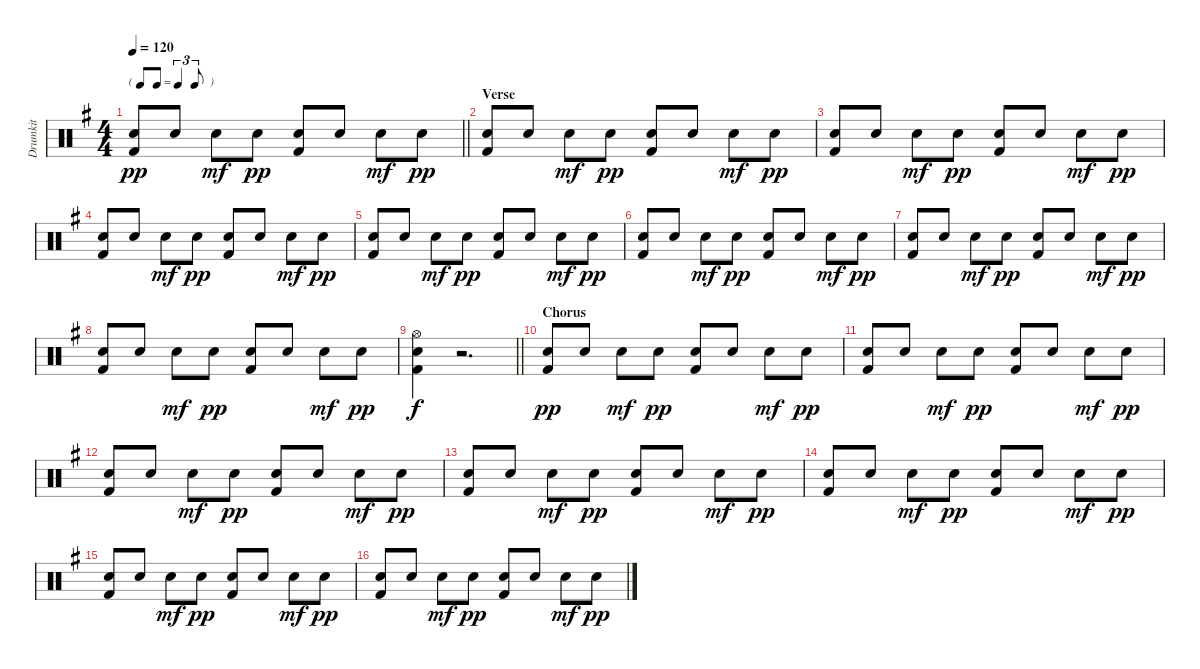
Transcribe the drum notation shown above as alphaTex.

\track ("Drumkit" "Drumkit") {instrument percussion}
\staff {score}
\articulation defaults
\ts (4 4)
\tf triplet8th
\tempo 120
\clef neutral
\barLineRight lightlight
\ks g
("Snare (hit) 2" "Kick (hit) 2").8{dy pp} "Snare (hit) 2".8 "Snare (hit) 2".8{dy mf} "Snare (hit) 2".8{dy pp} ("Snare (hit) 2" "Kick (hit) 2").8 "Snare (hit) 2".8 "Snare (hit) 2".8{dy mf} "Snare (hit) 2".8{dy pp} |
\section ("" "Verse")
("Snare (hit) 2" "Kick (hit) 2").8 "Snare (hit) 2".8 "Snare (hit) 2".8{dy mf} "Snare (hit) 2".8{dy pp} ("Snare (hit) 2" "Kick (hit) 2").8 "Snare (hit) 2".8 "Snare (hit) 2".8{dy mf} "Snare (hit) 2".8{dy pp} |
("Snare (hit) 2" "Kick (hit) 2").8 "Snare (hit) 2".8 "Snare (hit) 2".8{dy mf} "Snare (hit) 2".8{dy pp} ("Snare (hit) 2" "Kick (hit) 2").8 "Snare (hit) 2".8 "Snare (hit) 2".8{dy mf} "Snare (hit) 2".8{dy pp} |
("Snare (hit) 2" "Kick (hit) 2").8 "Snare (hit) 2".8 "Snare (hit) 2".8{dy mf} "Snare (hit) 2".8{dy pp} ("Snare (hit) 2" "Kick (hit) 2").8 "Snare (hit) 2".8 "Snare (hit) 2".8{dy mf} "Snare (hit) 2".8{dy pp} |
("Snare (hit) 2" "Kick (hit) 2").8 "Snare (hit) 2".8 "Snare (hit) 2".8{dy mf} "Snare (hit) 2".8{dy pp} ("Snare (hit) 2" "Kick (hit) 2").8 "Snare (hit) 2".8 "Snare (hit) 2".8{dy mf} "Snare (hit) 2".8{dy pp} |
("Snare (hit) 2" "Kick (hit) 2").8 "Snare (hit) 2".8 "Snare (hit) 2".8{dy mf} "Snare (hit) 2".8{dy pp} ("Snare (hit) 2" "Kick (hit) 2").8 "Snare (hit) 2".8 "Snare (hit) 2".8{dy mf} "Snare (hit) 2".8{dy pp} |
("Snare (hit) 2" "Kick (hit) 2").8 "Snare (hit) 2".8 "Snare (hit) 2".8{dy mf} "Snare (hit) 2".8{dy pp} ("Snare (hit) 2" "Kick (hit) 2").8 "Snare (hit) 2".8 "Snare (hit) 2".8{dy mf} "Snare (hit) 2".8{dy pp} |
("Snare (hit) 2" "Kick (hit) 2").8 "Snare (hit) 2".8 "Snare (hit) 2".8{dy mf} "Snare (hit) 2".8{dy pp} ("Snare (hit) 2" "Kick (hit) 2").8 "Snare (hit) 2".8 "Snare (hit) 2".8{dy mf} "Snare (hit) 2".8{dy pp} |
\barLineRight lightlight
("Kick (hit) 2" "Snare (hit) 2" "Hi-Hat (open)").4{dy f} r.2{d} |
\section ("" "Chorus")
("Snare (hit) 2" "Kick (hit) 2").8{dy pp} "Snare (hit) 2".8 "Snare (hit) 2".8{dy mf} "Snare (hit) 2".8{dy pp} ("Snare (hit) 2" "Kick (hit) 2").8 "Snare (hit) 2".8 "Snare (hit) 2".8{dy mf} "Snare (hit) 2".8{dy pp} |
("Snare (hit) 2" "Kick (hit) 2").8 "Snare (hit) 2".8 "Snare (hit) 2".8{dy mf} "Snare (hit) 2".8{dy pp} ("Snare (hit) 2" "Kick (hit) 2").8 "Snare (hit) 2".8 "Snare (hit) 2".8{dy mf} "Snare (hit) 2".8{dy pp} |
("Snare (hit) 2" "Kick (hit) 2").8 "Snare (hit) 2".8 "Snare (hit) 2".8{dy mf} "Snare (hit) 2".8{dy pp} ("Snare (hit) 2" "Kick (hit) 2").8 "Snare (hit) 2".8 "Snare (hit) 2".8{dy mf} "Snare (hit) 2".8{dy pp} |
("Snare (hit) 2" "Kick (hit) 2").8 "Snare (hit) 2".8 "Snare (hit) 2".8{dy mf} "Snare (hit) 2".8{dy pp} ("Snare (hit) 2" "Kick (hit) 2").8 "Snare (hit) 2".8 "Snare (hit) 2".8{dy mf} "Snare (hit) 2".8{dy pp} |
("Snare (hit) 2" "Kick (hit) 2").8 "Snare (hit) 2".8 "Snare (hit) 2".8{dy mf} "Snare (hit) 2".8{dy pp} ("Snare (hit) 2" "Kick (hit) 2").8 "Snare (hit) 2".8 "Snare (hit) 2".8{dy mf} "Snare (hit) 2".8{dy pp} |
("Snare (hit) 2" "Kick (hit) 2").8 "Snare (hit) 2".8 "Snare (hit) 2".8{dy mf} "Snare (hit) 2".8{dy pp} ("Snare (hit) 2" "Kick (hit) 2").8 "Snare (hit) 2".8 "Snare (hit) 2".8{dy mf} "Snare (hit) 2".8{dy pp} |
("Snare (hit) 2" "Kick (hit) 2").8 "Snare (hit) 2".8 "Snare (hit) 2".8{dy mf} "Snare (hit) 2".8{dy pp} ("Snare (hit) 2" "Kick (hit) 2").8 "Snare (hit) 2".8 "Snare (hit) 2".8{dy mf} "Snare (hit) 2".8{dy pp}
